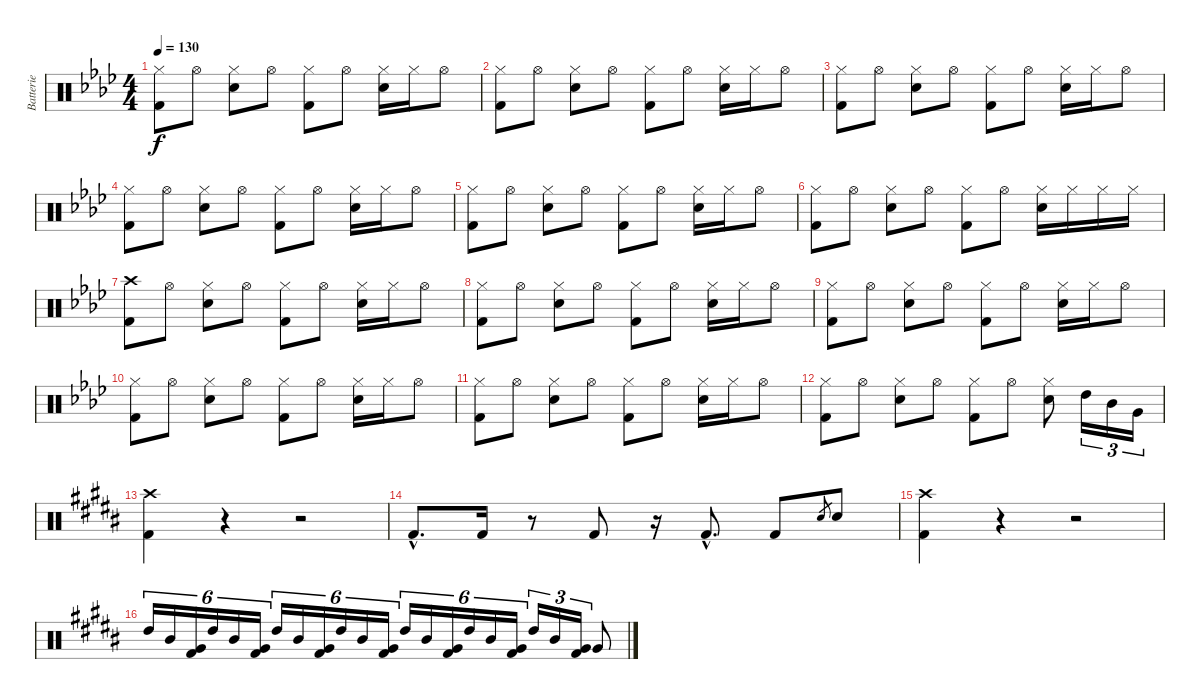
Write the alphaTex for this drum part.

\track ("Batterie" "Batterie") {instrument percussion}
\staff {score}
\articulation defaults
\ts (4 4)
\tempo 130
\clef neutral
\ks ab
("Hi-Hat (closed)" "Kick (hit) 2").8{dy f} "Hi-Hat (open)".8 ("Hi-Hat (closed)" "Snare (hit) 2").8 "Hi-Hat (open)".8 ("Hi-Hat (closed)" "Kick (hit) 2").8 "Hi-Hat (open)".8 ("Hi-Hat (closed)" "Snare (hit) 2").16 "Hi-Hat (closed)".16 "Hi-Hat (open)".8 |
("Hi-Hat (closed)" "Kick (hit) 2").8 "Hi-Hat (open)".8 ("Hi-Hat (closed)" "Snare (hit) 2").8 "Hi-Hat (open)".8 ("Hi-Hat (closed)" "Kick (hit) 2").8 "Hi-Hat (open)".8 ("Hi-Hat (closed)" "Snare (hit) 2").16 "Hi-Hat (closed)".16 "Hi-Hat (open)".8 |
("Hi-Hat (closed)" "Kick (hit) 2").8 "Hi-Hat (open)".8 ("Hi-Hat (closed)" "Snare (hit) 2").8 "Hi-Hat (open)".8 ("Hi-Hat (closed)" "Kick (hit) 2").8 "Hi-Hat (open)".8 ("Hi-Hat (closed)" "Snare (hit) 2").16 "Hi-Hat (closed)".16 "Hi-Hat (open)".8 |
("Hi-Hat (closed)" "Kick (hit) 2").8 "Hi-Hat (open)".8 ("Hi-Hat (closed)" "Snare (hit) 2").8 "Hi-Hat (open)".8 ("Hi-Hat (closed)" "Kick (hit) 2").8 "Hi-Hat (open)".8 ("Hi-Hat (closed)" "Snare (hit) 2").16 "Hi-Hat (closed)".16 "Hi-Hat (open)".8 |
("Hi-Hat (closed)" "Kick (hit) 2").8 "Hi-Hat (open)".8 ("Hi-Hat (closed)" "Snare (hit) 2").8 "Hi-Hat (open)".8 ("Hi-Hat (closed)" "Kick (hit) 2").8 "Hi-Hat (open)".8 ("Hi-Hat (closed)" "Snare (hit) 2").16 "Hi-Hat (closed)".16 "Hi-Hat (open)".8 |
("Hi-Hat (closed)" "Kick (hit) 2").8 "Hi-Hat (open)".8 ("Hi-Hat (closed)" "Snare (hit) 2").8 "Hi-Hat (open)".8 ("Hi-Hat (closed)" "Kick (hit) 2").8 "Hi-Hat (open)".8 ("Hi-Hat (closed)" "Snare (hit) 2").16 "Hi-Hat (closed)".16 "Hi-Hat (closed)".16 "Hi-Hat (closed)".16 |
("Crash high (hit)" "Kick (hit) 2").8 "Hi-Hat (open)".8 ("Hi-Hat (closed)" "Snare (hit) 2").8 "Hi-Hat (open)".8 ("Hi-Hat (closed)" "Kick (hit) 2").8 "Hi-Hat (open)".8 ("Hi-Hat (closed)" "Snare (hit) 2").16 "Hi-Hat (closed)".16 "Hi-Hat (open)".8 |
("Hi-Hat (closed)" "Kick (hit) 2").8 "Hi-Hat (open)".8 ("Hi-Hat (closed)" "Snare (hit) 2").8 "Hi-Hat (open)".8 ("Hi-Hat (closed)" "Kick (hit) 2").8 "Hi-Hat (open)".8 ("Hi-Hat (closed)" "Snare (hit) 2").16 "Hi-Hat (closed)".16 "Hi-Hat (open)".8 |
("Hi-Hat (closed)" "Kick (hit) 2").8 "Hi-Hat (open)".8 ("Hi-Hat (closed)" "Snare (hit) 2").8 "Hi-Hat (open)".8 ("Hi-Hat (closed)" "Kick (hit) 2").8 "Hi-Hat (open)".8 ("Hi-Hat (closed)" "Snare (hit) 2").16 "Hi-Hat (closed)".16 "Hi-Hat (open)".8 |
("Hi-Hat (closed)" "Kick (hit) 2").8 "Hi-Hat (open)".8 ("Hi-Hat (closed)" "Snare (hit) 2").8 "Hi-Hat (open)".8 ("Hi-Hat (closed)" "Kick (hit) 2").8 "Hi-Hat (open)".8 ("Hi-Hat (closed)" "Snare (hit) 2").16 "Hi-Hat (closed)".16 "Hi-Hat (open)".8 |
("Hi-Hat (closed)" "Kick (hit) 2").8 "Hi-Hat (open)".8 ("Hi-Hat (closed)" "Snare (hit) 2").8 "Hi-Hat (open)".8 ("Hi-Hat (closed)" "Kick (hit) 2").8 "Hi-Hat (open)".8 ("Hi-Hat (closed)" "Snare (hit) 2").16 "Hi-Hat (closed)".16 "Hi-Hat (open)".8 |
("Hi-Hat (closed)" "Kick (hit) 2").8 "Hi-Hat (open)".8 ("Hi-Hat (closed)" "Snare (hit) 2").8 "Hi-Hat (open)".8 ("Hi-Hat (closed)" "Kick (hit) 2").8 "Hi-Hat (open)".8 ("Hi-Hat (closed)" "Snare (hit) 2").8 "High Tom (hit)".16{tu (3 2)} "Mid Tom (hit)".16{tu (3 2)} "Very Low Tom (hit)".16{tu (3 2)} |
\ks b
("Crash high (hit)" "Kick (hit) 2").4 r.4 r.2 |
"Kick (hit) 2"{hac}.8{d} "Kick (hit) 2".16 r.8 "Kick (hit) 2".8 r.16 "Kick (hit) 2"{hac}.8{d} "Kick (hit) 2".8 "Snare (hit) 2".8{gr} "Snare (hit) 2".8 |
("Crash high (hit)" "Kick (hit) 2").4 r.4 r.2 |
"High Tom (hit)".16{tu (6 4)} "Mid Tom (hit)".16{tu (6 4)} ("Very Low Tom (hit)" "Kick (hit) 2").16{tu (6 4)} "High Tom (hit)".16{tu (6 4)} "Mid Tom (hit)".16{tu (6 4)} ("Very Low Tom (hit)" "Kick (hit) 2").16{tu (6 4)} "High Tom (hit)".16{tu (6 4)} "Mid Tom (hit)".16{tu (6 4)} ("Very Low Tom (hit)" "Kick (hit) 2").16{tu (6 4)} "High Tom (hit)".16{tu (6 4)} "Mid Tom (hit)".16{tu (6 4)} ("Very Low Tom (hit)" "Kick (hit) 2").16{tu (6 4)} "High Tom (hit)".16{tu (6 4)} "Mid Tom (hit)".16{tu (6 4)} ("Very Low Tom (hit)" "Kick (hit) 2").16{tu (6 4)} "High Tom (hit)".16{tu (6 4)} "Mid Tom (hit)".16{tu (6 4)} ("Very Low Tom (hit)" "Kick (hit) 2").16{tu (6 4)} "High Tom (hit)".16{tu (3 2)} "Mid Tom (hit)".16{tu (3 2)} ("Very Low Tom (hit)" "Kick (hit) 2").16{tu (3 2)} "Very Low Tom (hit)".8
